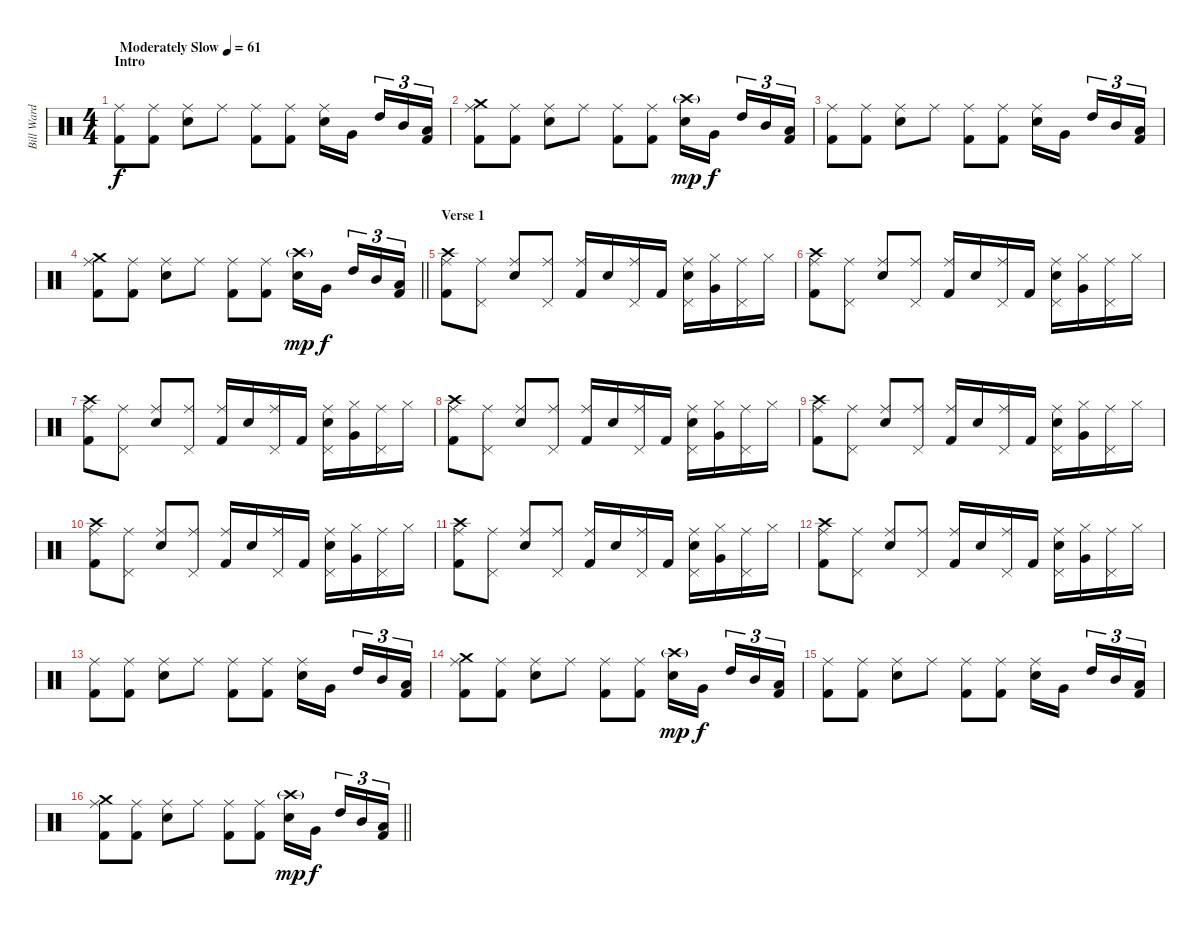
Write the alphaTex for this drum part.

\track ("Bill Ward" "Bill Ward") {instrument percussion}
\staff {score}
\articulation defaults
\ts (4 4)
\section ("" "Intro")
\tempo (61 "Moderately Slow")
\clef neutral
\ks c
("Ride (middle)" "Kick (hit) 2").8{dy f} ("Ride (middle)" "Kick (hit) 2").8 ("Ride (middle)" "Snare (hit) 2").8 "Ride (middle)".8 ("Ride (middle)" "Kick (hit) 2").8 ("Ride (middle)" "Kick (hit) 2").8 ("Ride (middle)" "Snare (hit) 2").16 "Very Low Tom (hit)".16{beam splitsecondary} "High Tom (hit)".16{tu (3 2)} "Mid Tom (hit)".16{tu (3 2)} ("Low Tom (hit)" "Kick (hit) 2").16{tu (3 2)} |
("Crash medium (hit)" "Ride (middle)" "Kick (hit) 2").8 ("Ride (middle)" "Kick (hit) 2").8 ("Ride (middle)" "Snare (hit) 2").8 "Ride (middle)".8 ("Ride (middle)" "Kick (hit) 2").8 ("Ride (middle)" "Kick (hit) 2").8 ("Crash high (hit)"{g} "Snare (hit) 2").16{dy mp} "Very Low Tom (hit)".16{dy f beam splitsecondary} "High Tom (hit)".16{tu (3 2)} "Mid Tom (hit)".16{tu (3 2)} ("Low Tom (hit)" "Kick (hit) 2").16{tu (3 2)} |
("Ride (middle)" "Kick (hit) 2").8 ("Ride (middle)" "Kick (hit) 2").8 ("Ride (middle)" "Snare (hit) 2").8 "Ride (middle)".8 ("Ride (middle)" "Kick (hit) 2").8 ("Ride (middle)" "Kick (hit) 2").8 ("Ride (middle)" "Snare (hit) 2").16 "Very Low Tom (hit)".16{beam splitsecondary} "High Tom (hit)".16{tu (3 2)} "Mid Tom (hit)".16{tu (3 2)} ("Low Tom (hit)" "Kick (hit) 2").16{tu (3 2)} |
\barLineRight lightlight
("Crash medium (hit)" "Ride (middle)" "Kick (hit) 2").8 ("Ride (middle)" "Kick (hit) 2").8 ("Ride (middle)" "Snare (hit) 2").8 "Ride (middle)".8 ("Ride (middle)" "Kick (hit) 2").8 ("Ride (middle)" "Kick (hit) 2").8 ("Crash high (hit)"{g} "Snare (hit) 2").16{dy mp} "Very Low Tom (hit)".16{dy f beam splitsecondary} "High Tom (hit)".16{tu (3 2)} "Mid Tom (hit)".16{tu (3 2)} ("Low Tom (hit)" "Kick (hit) 2").16{tu (3 2)} |
\section ("" "Verse 1")
("Crash high (hit)" "Ride (middle)" "Kick (hit) 2").8 ("Pedal Hi-Hat (hit)" "Ride (middle)").8 ("Ride (middle)" "Snare (hit) 2").8 ("Pedal Hi-Hat (hit)" "Ride (middle)").8 ("Ride (middle)" "Kick (hit) 2").16 "Snare (hit) 2".16 ("Pedal Hi-Hat (hit)" "Ride (middle)").16 "Kick (hit) 2".16 ("Pedal Hi-Hat (hit)" "Ride (middle)" "Snare (hit) 2").16 ("Hi-Hat (closed)" "Very Low Tom (hit)").16 ("Pedal Hi-Hat (hit)" "Ride (middle)").16 "Hi-Hat (closed)".16 |
("Crash high (hit)" "Ride (middle)" "Kick (hit) 2").8 ("Pedal Hi-Hat (hit)" "Ride (middle)").8 ("Ride (middle)" "Snare (hit) 2").8 ("Pedal Hi-Hat (hit)" "Ride (middle)").8 ("Ride (middle)" "Kick (hit) 2").16 "Snare (hit) 2".16 ("Pedal Hi-Hat (hit)" "Ride (middle)").16 "Kick (hit) 2".16 ("Pedal Hi-Hat (hit)" "Ride (middle)" "Snare (hit) 2").16 ("Hi-Hat (closed)" "Very Low Tom (hit)").16 ("Pedal Hi-Hat (hit)" "Ride (middle)").16 "Hi-Hat (closed)".16 |
("Crash high (hit)" "Ride (middle)" "Kick (hit) 2").8 ("Pedal Hi-Hat (hit)" "Ride (middle)").8 ("Ride (middle)" "Snare (hit) 2").8 ("Pedal Hi-Hat (hit)" "Ride (middle)").8 ("Ride (middle)" "Kick (hit) 2").16 "Snare (hit) 2".16 ("Pedal Hi-Hat (hit)" "Ride (middle)").16 "Kick (hit) 2".16 ("Pedal Hi-Hat (hit)" "Ride (middle)" "Snare (hit) 2").16 ("Hi-Hat (closed)" "Very Low Tom (hit)").16 ("Pedal Hi-Hat (hit)" "Ride (middle)").16 "Hi-Hat (closed)".16 |
("Crash high (hit)" "Ride (middle)" "Kick (hit) 2").8 ("Pedal Hi-Hat (hit)" "Ride (middle)").8 ("Ride (middle)" "Snare (hit) 2").8 ("Pedal Hi-Hat (hit)" "Ride (middle)").8 ("Ride (middle)" "Kick (hit) 2").16 "Snare (hit) 2".16 ("Pedal Hi-Hat (hit)" "Ride (middle)").16 "Kick (hit) 2".16 ("Pedal Hi-Hat (hit)" "Ride (middle)" "Snare (hit) 2").16 ("Hi-Hat (closed)" "Very Low Tom (hit)").16 ("Pedal Hi-Hat (hit)" "Ride (middle)").16 "Hi-Hat (closed)".16 |
("Crash high (hit)" "Ride (middle)" "Kick (hit) 2").8 ("Pedal Hi-Hat (hit)" "Ride (middle)").8 ("Ride (middle)" "Snare (hit) 2").8 ("Pedal Hi-Hat (hit)" "Ride (middle)").8 ("Ride (middle)" "Kick (hit) 2").16 "Snare (hit) 2".16 ("Pedal Hi-Hat (hit)" "Ride (middle)").16 "Kick (hit) 2".16 ("Pedal Hi-Hat (hit)" "Ride (middle)" "Snare (hit) 2").16 ("Hi-Hat (closed)" "Very Low Tom (hit)").16 ("Pedal Hi-Hat (hit)" "Ride (middle)").16 "Hi-Hat (closed)".16 |
("Crash high (hit)" "Ride (middle)" "Kick (hit) 2").8 ("Pedal Hi-Hat (hit)" "Ride (middle)").8 ("Ride (middle)" "Snare (hit) 2").8 ("Pedal Hi-Hat (hit)" "Ride (middle)").8 ("Ride (middle)" "Kick (hit) 2").16 "Snare (hit) 2".16 ("Pedal Hi-Hat (hit)" "Ride (middle)").16 "Kick (hit) 2".16 ("Pedal Hi-Hat (hit)" "Ride (middle)" "Snare (hit) 2").16 ("Hi-Hat (closed)" "Very Low Tom (hit)").16 ("Pedal Hi-Hat (hit)" "Ride (middle)").16 "Hi-Hat (closed)".16 |
("Crash high (hit)" "Ride (middle)" "Kick (hit) 2").8 ("Pedal Hi-Hat (hit)" "Ride (middle)").8 ("Ride (middle)" "Snare (hit) 2").8 ("Pedal Hi-Hat (hit)" "Ride (middle)").8 ("Ride (middle)" "Kick (hit) 2").16 "Snare (hit) 2".16 ("Pedal Hi-Hat (hit)" "Ride (middle)").16 "Kick (hit) 2".16 ("Pedal Hi-Hat (hit)" "Ride (middle)" "Snare (hit) 2").16 ("Hi-Hat (closed)" "Very Low Tom (hit)").16 ("Pedal Hi-Hat (hit)" "Ride (middle)").16 "Hi-Hat (closed)".16 |
("Crash high (hit)" "Ride (middle)" "Kick (hit) 2").8 ("Pedal Hi-Hat (hit)" "Ride (middle)").8 ("Ride (middle)" "Snare (hit) 2").8 ("Pedal Hi-Hat (hit)" "Ride (middle)").8 ("Ride (middle)" "Kick (hit) 2").16 "Snare (hit) 2".16 ("Pedal Hi-Hat (hit)" "Ride (middle)").16 "Kick (hit) 2".16 ("Pedal Hi-Hat (hit)" "Ride (middle)" "Snare (hit) 2").16 ("Hi-Hat (closed)" "Very Low Tom (hit)").16 ("Pedal Hi-Hat (hit)" "Ride (middle)").16 "Hi-Hat (closed)".16 |
("Ride (middle)" "Kick (hit) 2").8 ("Ride (middle)" "Kick (hit) 2").8 ("Ride (middle)" "Snare (hit) 2").8 "Ride (middle)".8 ("Ride (middle)" "Kick (hit) 2").8 ("Ride (middle)" "Kick (hit) 2").8 ("Ride (middle)" "Snare (hit) 2").16 "Very Low Tom (hit)".16{beam splitsecondary} "High Tom (hit)".16{tu (3 2)} "Mid Tom (hit)".16{tu (3 2)} ("Low Tom (hit)" "Kick (hit) 2").16{tu (3 2)} |
("Crash medium (hit)" "Ride (middle)" "Kick (hit) 2").8 ("Ride (middle)" "Kick (hit) 2").8 ("Ride (middle)" "Snare (hit) 2").8 "Ride (middle)".8 ("Ride (middle)" "Kick (hit) 2").8 ("Ride (middle)" "Kick (hit) 2").8 ("Crash high (hit)"{g} "Snare (hit) 2").16{dy mp} "Very Low Tom (hit)".16{dy f beam splitsecondary} "High Tom (hit)".16{tu (3 2)} "Mid Tom (hit)".16{tu (3 2)} ("Low Tom (hit)" "Kick (hit) 2").16{tu (3 2)} |
("Ride (middle)" "Kick (hit) 2").8 ("Ride (middle)" "Kick (hit) 2").8 ("Ride (middle)" "Snare (hit) 2").8 "Ride (middle)".8 ("Ride (middle)" "Kick (hit) 2").8 ("Ride (middle)" "Kick (hit) 2").8 ("Ride (middle)" "Snare (hit) 2").16 "Very Low Tom (hit)".16{beam splitsecondary} "High Tom (hit)".16{tu (3 2)} "Mid Tom (hit)".16{tu (3 2)} ("Low Tom (hit)" "Kick (hit) 2").16{tu (3 2)} |
\barLineRight lightlight
("Crash medium (hit)" "Ride (middle)" "Kick (hit) 2").8 ("Ride (middle)" "Kick (hit) 2").8 ("Ride (middle)" "Snare (hit) 2").8 "Ride (middle)".8 ("Ride (middle)" "Kick (hit) 2").8 ("Ride (middle)" "Kick (hit) 2").8 ("Crash high (hit)"{g} "Snare (hit) 2").16{dy mp} "Very Low Tom (hit)".16{dy f beam splitsecondary} "High Tom (hit)".16{tu (3 2)} "Mid Tom (hit)".16{tu (3 2)} ("Low Tom (hit)" "Kick (hit) 2").16{tu (3 2)}
